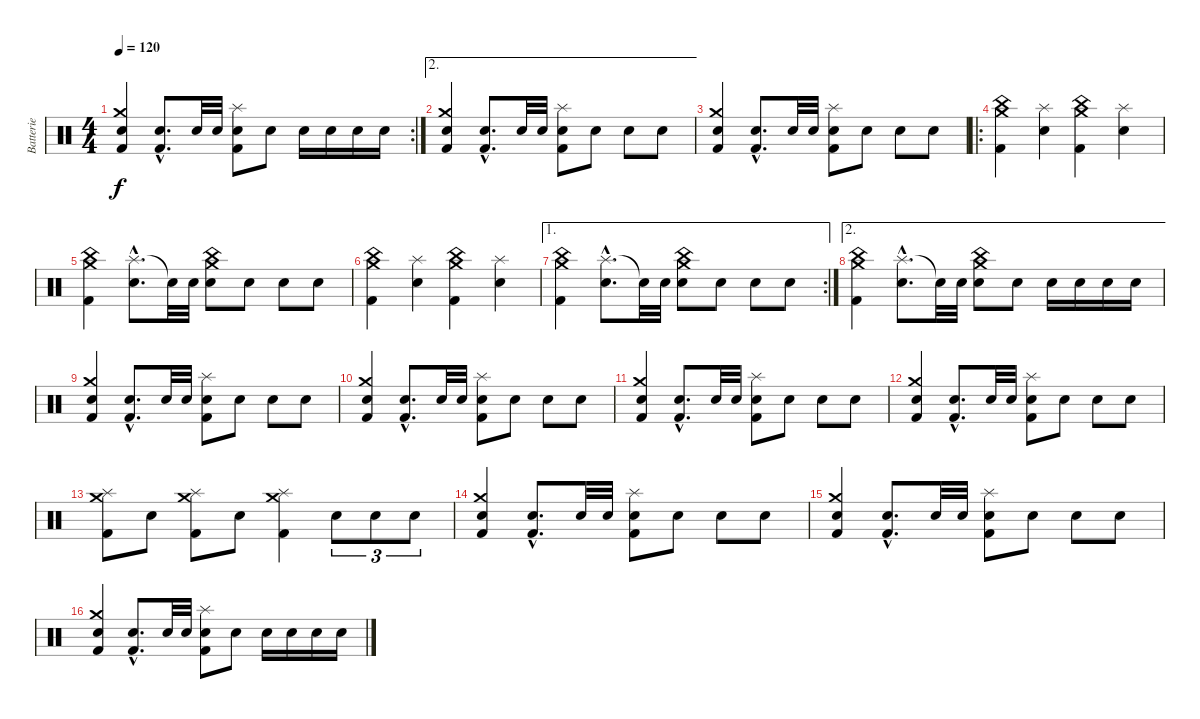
\track ("Batterie" "Batterie") {instrument percussion}
\staff {score}
\articulation defaults
\rc 2
\ts (4 4)
\tempo 120
\clef neutral
\ks c
("Electric Snare (hit)" "Crash medium (hit)" "Kick (hit) 2").4{dy f} ("Electric Snare (hit)"{hac} "Kick (hit) 2"{hac}).8{d} "Electric Snare (hit)".32 "Electric Snare (hit)".32 ("Electric Snare (hit)" "Splash (hit)" "Kick (hit) 2").8 "Electric Snare (hit)".8 "Electric Snare (hit)".16 "Electric Snare (hit)".16 "Electric Snare (hit)".16 "Electric Snare (hit)".16 |
\ae 2
("Electric Snare (hit)" "Crash medium (hit)" "Kick (hit) 2").4 ("Electric Snare (hit)"{hac} "Kick (hit) 2"{hac}).8{d} "Electric Snare (hit)".32 "Electric Snare (hit)".32 ("Electric Snare (hit)" "Splash (hit)" "Kick (hit) 2").8 "Electric Snare (hit)".8 "Electric Snare (hit)".8 "Electric Snare (hit)".8 |
("Electric Snare (hit)" "Crash medium (hit)" "Kick (hit) 2").4 ("Electric Snare (hit)"{hac} "Kick (hit) 2"{hac}).8{d} "Electric Snare (hit)".32 "Electric Snare (hit)".32 ("Electric Snare (hit)" "Splash (hit)" "Kick (hit) 2").8 "Electric Snare (hit)".8 "Electric Snare (hit)".8 "Electric Snare (hit)".8 |
\ro
("China (hit)" "Crash medium (hit)" "Kick (hit) 2").4 ("Splash (hit)" "Electric Snare (hit)").4 ("China (hit)" "Crash medium (hit)" "Kick (hit) 2").4 ("Splash (hit)" "Electric Snare (hit)").4 |
("China (hit)" "Crash medium (hit)" "Kick (hit) 2").4 ("Splash (hit)"{hac} "Electric Snare (hit)"{hac}).8{d} "Snare (hit)"{t}.32 "Electric Snare (hit)".32 ("China (hit)" "Crash medium (hit)" "Electric Snare (hit)").8 "Electric Snare (hit)".8 "Electric Snare (hit)".8 "Electric Snare (hit)".8 |
("China (hit)" "Crash medium (hit)" "Kick (hit) 2").4 ("Splash (hit)" "Electric Snare (hit)").4 ("China (hit)" "Crash medium (hit)" "Kick (hit) 2").4 ("Splash (hit)" "Electric Snare (hit)").4 |
\ae 1
\rc 2
("China (hit)" "Crash medium (hit)" "Kick (hit) 2").4 ("Splash (hit)"{hac} "Electric Snare (hit)"{hac}).8{d} "Snare (hit)"{t}.32 "Electric Snare (hit)".32 ("China (hit)" "Crash medium (hit)" "Electric Snare (hit)").8 "Electric Snare (hit)".8 "Electric Snare (hit)".8 "Electric Snare (hit)".8 |
\ae 2
("China (hit)" "Crash medium (hit)" "Kick (hit) 2").4 ("Splash (hit)"{hac} "Electric Snare (hit)"{hac}).8{d} "Snare (hit)"{t}.32 "Electric Snare (hit)".32 ("China (hit)" "Crash medium (hit)" "Electric Snare (hit)").8 "Electric Snare (hit)".8 "Electric Snare (hit)".16 "Electric Snare (hit)".16 "Electric Snare (hit)".16 "Electric Snare (hit)".16 |
("Electric Snare (hit)" "Crash medium (hit)" "Kick (hit) 2").4 ("Electric Snare (hit)"{hac} "Kick (hit) 2"{hac}).8{d} "Electric Snare (hit)".32 "Electric Snare (hit)".32 ("Electric Snare (hit)" "Splash (hit)" "Kick (hit) 2").8 "Electric Snare (hit)".8 "Electric Snare (hit)".8 "Electric Snare (hit)".8 |
("Electric Snare (hit)" "Crash medium (hit)" "Kick (hit) 2").4 ("Electric Snare (hit)"{hac} "Kick (hit) 2"{hac}).8{d} "Electric Snare (hit)".32 "Electric Snare (hit)".32 ("Electric Snare (hit)" "Splash (hit)" "Kick (hit) 2").8 "Electric Snare (hit)".8 "Electric Snare (hit)".8 "Electric Snare (hit)".8 |
("Electric Snare (hit)" "Crash medium (hit)" "Kick (hit) 2").4 ("Electric Snare (hit)"{hac} "Kick (hit) 2"{hac}).8{d} "Electric Snare (hit)".32 "Electric Snare (hit)".32 ("Electric Snare (hit)" "Splash (hit)" "Kick (hit) 2").8 "Electric Snare (hit)".8 "Electric Snare (hit)".8 "Electric Snare (hit)".8 |
("Electric Snare (hit)" "Crash medium (hit)" "Kick (hit) 2").4 ("Electric Snare (hit)"{hac} "Kick (hit) 2"{hac}).8{d} "Electric Snare (hit)".32 "Electric Snare (hit)".32 ("Electric Snare (hit)" "Splash (hit)" "Kick (hit) 2").8 "Electric Snare (hit)".8 "Electric Snare (hit)".8 "Electric Snare (hit)".8 |
("Splash (hit)" "Crash medium (hit)" "Kick (hit) 2").8 "Electric Snare (hit)".8 ("Splash (hit)" "Crash medium (hit)" "Kick (hit) 2").8 "Electric Snare (hit)".8 ("Splash (hit)" "Crash medium (hit)" "Kick (hit) 2").4 "Electric Snare (hit)".8{tu (3 2)} "Electric Snare (hit)".8{tu (3 2)} "Electric Snare (hit)".8{tu (3 2)} |
("Electric Snare (hit)" "Crash medium (hit)" "Kick (hit) 2").4 ("Electric Snare (hit)"{hac} "Kick (hit) 2"{hac}).8{d} "Electric Snare (hit)".32 "Electric Snare (hit)".32 ("Electric Snare (hit)" "Splash (hit)" "Kick (hit) 2").8 "Electric Snare (hit)".8 "Electric Snare (hit)".8 "Electric Snare (hit)".8 |
("Electric Snare (hit)" "Crash medium (hit)" "Kick (hit) 2").4 ("Electric Snare (hit)"{hac} "Kick (hit) 2"{hac}).8{d} "Electric Snare (hit)".32 "Electric Snare (hit)".32 ("Electric Snare (hit)" "Splash (hit)" "Kick (hit) 2").8 "Electric Snare (hit)".8 "Electric Snare (hit)".8 "Electric Snare (hit)".8 |
("Electric Snare (hit)" "Crash medium (hit)" "Kick (hit) 2").4 ("Electric Snare (hit)"{hac} "Kick (hit) 2"{hac}).8{d} "Electric Snare (hit)".32 "Electric Snare (hit)".32 ("Electric Snare (hit)" "Splash (hit)" "Kick (hit) 2").8 "Electric Snare (hit)".8 "Electric Snare (hit)".16 "Electric Snare (hit)".16 "Electric Snare (hit)".16 "Electric Snare (hit)".16
